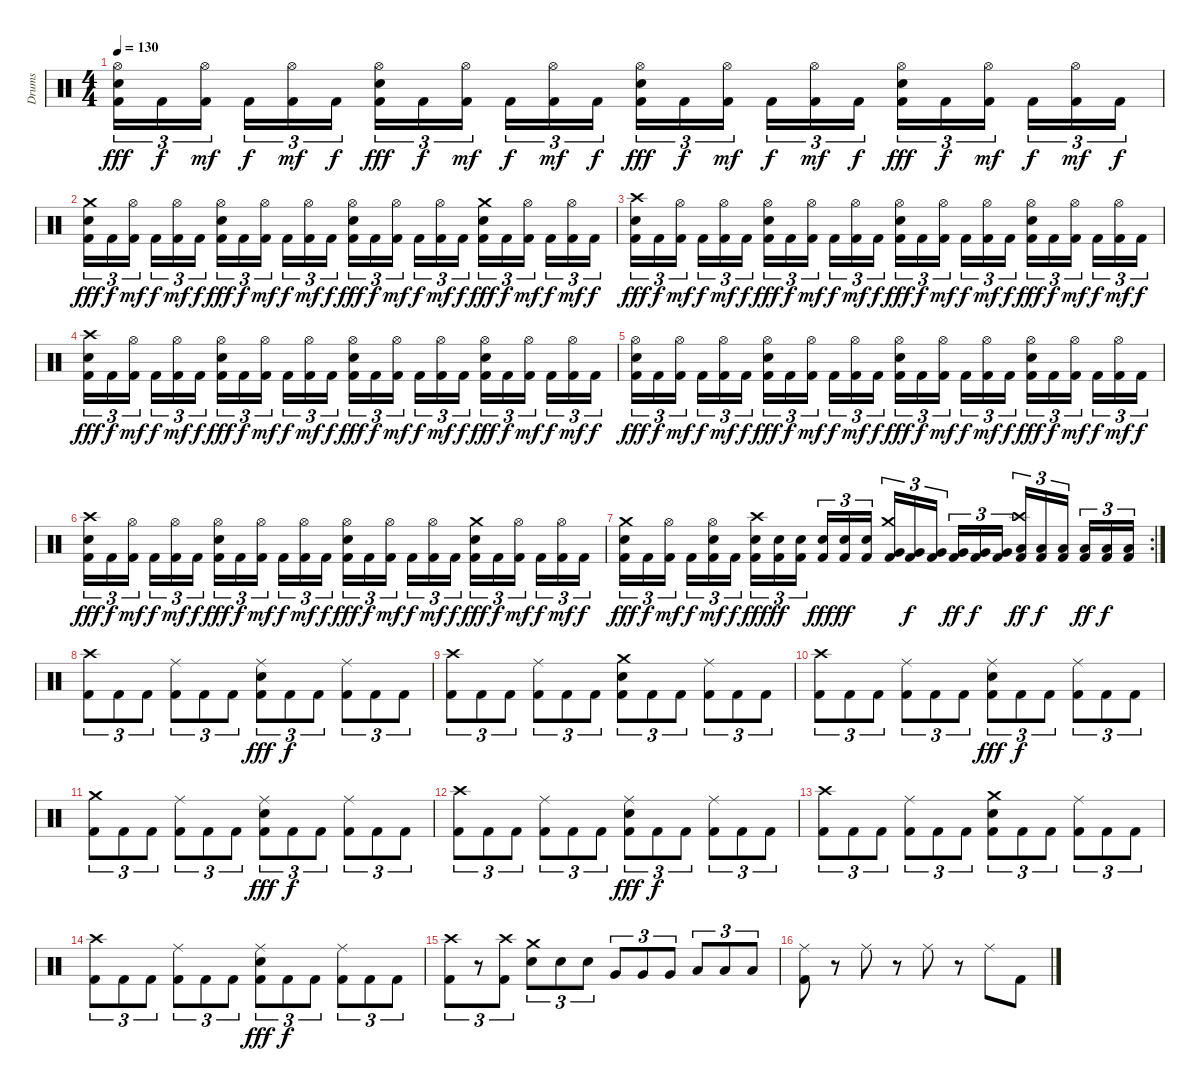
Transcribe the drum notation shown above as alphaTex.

\track ("Drums" "Drums") {instrument percussion}
\staff {score}
\articulation defaults
\ts (4 4)
\tempo 130
\clef neutral
\ks c
("Hi-Hat (open)" "Snare (hit) 2" "Kick (hit) 2").16{tu (3 2) dy fff} "Kick (hit) 2".16{tu (3 2) dy f} ("Hi-Hat (open)" "Kick (hit) 2").16{tu (3 2) dy mf} "Kick (hit) 2".16{tu (3 2) dy f} ("Hi-Hat (open)" "Kick (hit) 2").16{tu (3 2) dy mf} "Kick (hit) 2".16{tu (3 2) dy f} ("Hi-Hat (open)" "Snare (hit) 2" "Kick (hit) 2").16{tu (3 2) dy fff} "Kick (hit) 2".16{tu (3 2) dy f} ("Hi-Hat (open)" "Kick (hit) 2").16{tu (3 2) dy mf} "Kick (hit) 2".16{tu (3 2) dy f} ("Hi-Hat (open)" "Kick (hit) 2").16{tu (3 2) dy mf} "Kick (hit) 2".16{tu (3 2) dy f} ("Hi-Hat (open)" "Snare (hit) 2" "Kick (hit) 2").16{tu (3 2) dy fff} "Kick (hit) 2".16{tu (3 2) dy f} ("Hi-Hat (open)" "Kick (hit) 2").16{tu (3 2) dy mf} "Kick (hit) 2".16{tu (3 2) dy f} ("Hi-Hat (open)" "Kick (hit) 2").16{tu (3 2) dy mf} "Kick (hit) 2".16{tu (3 2) dy f} ("Hi-Hat (open)" "Snare (hit) 2" "Kick (hit) 2").16{tu (3 2) dy fff} "Kick (hit) 2".16{tu (3 2) dy f} ("Hi-Hat (open)" "Kick (hit) 2").16{tu (3 2) dy mf} "Kick (hit) 2".16{tu (3 2) dy f} ("Hi-Hat (open)" "Kick (hit) 2").16{tu (3 2) dy mf} "Kick (hit) 2".16{tu (3 2) dy f} |
("Crash medium (hit)" "Snare (hit) 2" "Kick (hit) 2").16{tu (3 2) dy fff} "Kick (hit) 2".16{tu (3 2) dy f} ("Hi-Hat (open)" "Kick (hit) 2").16{tu (3 2) dy mf} "Kick (hit) 2".16{tu (3 2) dy f} ("Hi-Hat (open)" "Kick (hit) 2").16{tu (3 2) dy mf} "Kick (hit) 2".16{tu (3 2) dy f} ("Hi-Hat (open)" "Snare (hit) 2" "Kick (hit) 2").16{tu (3 2) dy fff} "Kick (hit) 2".16{tu (3 2) dy f} ("Hi-Hat (open)" "Kick (hit) 2").16{tu (3 2) dy mf} "Kick (hit) 2".16{tu (3 2) dy f} ("Hi-Hat (open)" "Kick (hit) 2").16{tu (3 2) dy mf} "Kick (hit) 2".16{tu (3 2) dy f} ("Hi-Hat (open)" "Snare (hit) 2" "Kick (hit) 2").16{tu (3 2) dy fff} "Kick (hit) 2".16{tu (3 2) dy f} ("Hi-Hat (open)" "Kick (hit) 2").16{tu (3 2) dy mf} "Kick (hit) 2".16{tu (3 2) dy f} ("Hi-Hat (open)" "Kick (hit) 2").16{tu (3 2) dy mf} "Kick (hit) 2".16{tu (3 2) dy f} ("Crash medium (hit)" "Snare (hit) 2" "Kick (hit) 2").16{tu (3 2) dy fff} "Kick (hit) 2".16{tu (3 2) dy f} ("Hi-Hat (open)" "Kick (hit) 2").16{tu (3 2) dy mf} "Kick (hit) 2".16{tu (3 2) dy f} ("Hi-Hat (open)" "Kick (hit) 2").16{tu (3 2) dy mf} "Kick (hit) 2".16{tu (3 2) dy f} |
("Crash high (hit)" "Snare (hit) 2" "Kick (hit) 2").16{tu (3 2) dy fff} "Kick (hit) 2".16{tu (3 2) dy f} ("Hi-Hat (open)" "Kick (hit) 2").16{tu (3 2) dy mf} "Kick (hit) 2".16{tu (3 2) dy f} ("Hi-Hat (open)" "Kick (hit) 2").16{tu (3 2) dy mf} "Kick (hit) 2".16{tu (3 2) dy f} ("Hi-Hat (open)" "Snare (hit) 2" "Kick (hit) 2").16{tu (3 2) dy fff} "Kick (hit) 2".16{tu (3 2) dy f} ("Hi-Hat (open)" "Kick (hit) 2").16{tu (3 2) dy mf} "Kick (hit) 2".16{tu (3 2) dy f} ("Hi-Hat (open)" "Kick (hit) 2").16{tu (3 2) dy mf} "Kick (hit) 2".16{tu (3 2) dy f} ("Hi-Hat (open)" "Snare (hit) 2" "Kick (hit) 2").16{tu (3 2) dy fff} "Kick (hit) 2".16{tu (3 2) dy f} ("Hi-Hat (open)" "Kick (hit) 2").16{tu (3 2) dy mf} "Kick (hit) 2".16{tu (3 2) dy f} ("Hi-Hat (open)" "Kick (hit) 2").16{tu (3 2) dy mf} "Kick (hit) 2".16{tu (3 2) dy f} ("Hi-Hat (open)" "Snare (hit) 2" "Kick (hit) 2").16{tu (3 2) dy fff} "Kick (hit) 2".16{tu (3 2) dy f} ("Hi-Hat (open)" "Kick (hit) 2").16{tu (3 2) dy mf} "Kick (hit) 2".16{tu (3 2) dy f} ("Hi-Hat (open)" "Kick (hit) 2").16{tu (3 2) dy mf} "Kick (hit) 2".16{tu (3 2) dy f} |
("Crash high (hit)" "Snare (hit) 2" "Kick (hit) 2").16{tu (3 2) dy fff} "Kick (hit) 2".16{tu (3 2) dy f} ("Hi-Hat (open)" "Kick (hit) 2").16{tu (3 2) dy mf} "Kick (hit) 2".16{tu (3 2) dy f} ("Hi-Hat (open)" "Kick (hit) 2").16{tu (3 2) dy mf} "Kick (hit) 2".16{tu (3 2) dy f} ("Hi-Hat (open)" "Snare (hit) 2" "Kick (hit) 2").16{tu (3 2) dy fff} "Kick (hit) 2".16{tu (3 2) dy f} ("Hi-Hat (open)" "Kick (hit) 2").16{tu (3 2) dy mf} "Kick (hit) 2".16{tu (3 2) dy f} ("Hi-Hat (open)" "Kick (hit) 2").16{tu (3 2) dy mf} "Kick (hit) 2".16{tu (3 2) dy f} ("Hi-Hat (open)" "Snare (hit) 2" "Kick (hit) 2").16{tu (3 2) dy fff} "Kick (hit) 2".16{tu (3 2) dy f} ("Hi-Hat (open)" "Kick (hit) 2").16{tu (3 2) dy mf} "Kick (hit) 2".16{tu (3 2) dy f} ("Hi-Hat (open)" "Kick (hit) 2").16{tu (3 2) dy mf} "Kick (hit) 2".16{tu (3 2) dy f} ("Hi-Hat (open)" "Snare (hit) 2" "Kick (hit) 2").16{tu (3 2) dy fff} "Kick (hit) 2".16{tu (3 2) dy f} ("Hi-Hat (open)" "Kick (hit) 2").16{tu (3 2) dy mf} "Kick (hit) 2".16{tu (3 2) dy f} ("Hi-Hat (open)" "Kick (hit) 2").16{tu (3 2) dy mf} "Kick (hit) 2".16{tu (3 2) dy f} |
("Hi-Hat (open)" "Snare (hit) 2" "Kick (hit) 2").16{tu (3 2) dy fff} "Kick (hit) 2".16{tu (3 2) dy f} ("Hi-Hat (open)" "Kick (hit) 2").16{tu (3 2) dy mf} "Kick (hit) 2".16{tu (3 2) dy f} ("Hi-Hat (open)" "Kick (hit) 2").16{tu (3 2) dy mf} "Kick (hit) 2".16{tu (3 2) dy f} ("Hi-Hat (open)" "Snare (hit) 2" "Kick (hit) 2").16{tu (3 2) dy fff} "Kick (hit) 2".16{tu (3 2) dy f} ("Hi-Hat (open)" "Kick (hit) 2").16{tu (3 2) dy mf} "Kick (hit) 2".16{tu (3 2) dy f} ("Hi-Hat (open)" "Kick (hit) 2").16{tu (3 2) dy mf} "Kick (hit) 2".16{tu (3 2) dy f} ("Hi-Hat (open)" "Snare (hit) 2" "Kick (hit) 2").16{tu (3 2) dy fff} "Kick (hit) 2".16{tu (3 2) dy f} ("Hi-Hat (open)" "Kick (hit) 2").16{tu (3 2) dy mf} "Kick (hit) 2".16{tu (3 2) dy f} ("Hi-Hat (open)" "Kick (hit) 2").16{tu (3 2) dy mf} "Kick (hit) 2".16{tu (3 2) dy f} ("Hi-Hat (open)" "Snare (hit) 2" "Kick (hit) 2").16{tu (3 2) dy fff} "Kick (hit) 2".16{tu (3 2) dy f} ("Hi-Hat (open)" "Kick (hit) 2").16{tu (3 2) dy mf} "Kick (hit) 2".16{tu (3 2) dy f} ("Hi-Hat (open)" "Kick (hit) 2").16{tu (3 2) dy mf} "Kick (hit) 2".16{tu (3 2) dy f} |
("Crash high (hit)" "Snare (hit) 2" "Kick (hit) 2").16{tu (3 2) dy fff} "Kick (hit) 2".16{tu (3 2) dy f} ("Hi-Hat (open)" "Kick (hit) 2").16{tu (3 2) dy mf} "Kick (hit) 2".16{tu (3 2) dy f} ("Hi-Hat (open)" "Kick (hit) 2").16{tu (3 2) dy mf} "Kick (hit) 2".16{tu (3 2) dy f} ("Hi-Hat (open)" "Snare (hit) 2" "Kick (hit) 2").16{tu (3 2) dy fff} "Kick (hit) 2".16{tu (3 2) dy f} ("Hi-Hat (open)" "Kick (hit) 2").16{tu (3 2) dy mf} "Kick (hit) 2".16{tu (3 2) dy f} ("Hi-Hat (open)" "Kick (hit) 2").16{tu (3 2) dy mf} "Kick (hit) 2".16{tu (3 2) dy f} ("Hi-Hat (open)" "Snare (hit) 2" "Kick (hit) 2").16{tu (3 2) dy fff} "Kick (hit) 2".16{tu (3 2) dy f} ("Hi-Hat (open)" "Kick (hit) 2").16{tu (3 2) dy mf} "Kick (hit) 2".16{tu (3 2) dy f} ("Hi-Hat (open)" "Kick (hit) 2").16{tu (3 2) dy mf} "Kick (hit) 2".16{tu (3 2) dy f} ("Crash medium (hit)" "Snare (hit) 2" "Kick (hit) 2").16{tu (3 2) dy fff} "Kick (hit) 2".16{tu (3 2) dy f} ("Hi-Hat (open)" "Kick (hit) 2").16{tu (3 2) dy mf} "Kick (hit) 2".16{tu (3 2) dy f} ("Hi-Hat (open)" "Kick (hit) 2").16{tu (3 2) dy mf} "Kick (hit) 2".16{tu (3 2) dy f} |
\rc 2
("Crash medium (hit)" "Snare (hit) 2" "Kick (hit) 2").16{tu (3 2) dy fff} "Kick (hit) 2".16{tu (3 2) dy f} ("Hi-Hat (open)" "Kick (hit) 2").16{tu (3 2) dy mf} "Kick (hit) 2".16{tu (3 2) dy f} ("Hi-Hat (open)" "Snare (hit) 2" "Kick (hit) 2").16{tu (3 2) dy mf} "Kick (hit) 2".16{tu (3 2) dy f} ("Crash high (hit)" "Snare (hit) 2" "Kick (hit) 2").16{tu (3 2) dy fff} ("Snare (hit) 2" "Kick (hit) 2").16{tu (3 2) dy ff} ("Snare (hit) 2" "Kick (hit) 2").16{tu (3 2)} ("Snare (hit) 2" "Kick (hit) 2").16{tu (3 2) dy fff} ("Snare (hit) 2" "Kick (hit) 2").16{tu (3 2) dy ff} ("Snare (hit) 2" "Kick (hit) 2").16{tu (3 2)} ("Crash medium (hit)" "Very Low Tom (hit)" "Kick (hit) 2").16{tu (3 2)} ("Very Low Tom (hit)" "Kick (hit) 2").16{tu (3 2) dy f} ("Very Low Tom (hit)" "Kick (hit) 2").16{tu (3 2)} ("Very Low Tom (hit)" "Kick (hit) 2").16{tu (3 2) dy ff} ("Very Low Tom (hit)" "Kick (hit) 2").16{tu (3 2) dy f} ("Very Low Tom (hit)" "Kick (hit) 2").16{tu (3 2)} ("Crash high (hit)" "Low Floor Tom (hit)" "Kick (hit) 2").16{tu (3 2) dy ff} ("Low Floor Tom (hit)" "Kick (hit) 2").16{tu (3 2) dy f} ("Low Floor Tom (hit)" "Kick (hit) 2").16{tu (3 2)} ("Low Floor Tom (hit)" "Kick (hit) 2").16{tu (3 2) dy ff} ("Low Floor Tom (hit)" "Kick (hit) 2").16{tu (3 2) dy f} ("Low Floor Tom (hit)" "Kick (hit) 2").16{tu (3 2)} |
("Crash high (hit)" "Kick (hit) 2").8{tu (3 2)} "Kick (hit) 2".8{tu (3 2)} "Kick (hit) 2".8{tu (3 2)} ("Ride (middle)" "Kick (hit) 2").8{tu (3 2)} "Kick (hit) 2".8{tu (3 2)} "Kick (hit) 2".8{tu (3 2)} ("Ride (middle)" "Snare (hit) 2" "Kick (hit) 2").8{tu (3 2) dy fff} "Kick (hit) 2".8{tu (3 2) dy f} "Kick (hit) 2".8{tu (3 2)} ("Ride (middle)" "Kick (hit) 2").8{tu (3 2)} "Kick (hit) 2".8{tu (3 2)} "Kick (hit) 2".8{tu (3 2)} |
("Crash high (hit)" "Kick (hit) 2").8{tu (3 2)} "Kick (hit) 2".8{tu (3 2)} "Kick (hit) 2".8{tu (3 2)} ("Ride (middle)" "Kick (hit) 2").8{tu (3 2)} "Kick (hit) 2".8{tu (3 2)} "Kick (hit) 2".8{tu (3 2)} ("Crash medium (hit)" "Snare (hit) 2" "Kick (hit) 2").8{tu (3 2)} "Kick (hit) 2".8{tu (3 2)} "Kick (hit) 2".8{tu (3 2)} ("Ride (middle)" "Kick (hit) 2").8{tu (3 2)} "Kick (hit) 2".8{tu (3 2)} "Kick (hit) 2".8{tu (3 2)} |
("Crash high (hit)" "Kick (hit) 2").8{tu (3 2)} "Kick (hit) 2".8{tu (3 2)} "Kick (hit) 2".8{tu (3 2)} ("Ride (middle)" "Kick (hit) 2").8{tu (3 2)} "Kick (hit) 2".8{tu (3 2)} "Kick (hit) 2".8{tu (3 2)} ("Ride (middle)" "Snare (hit) 2" "Kick (hit) 2").8{tu (3 2) dy fff} "Kick (hit) 2".8{tu (3 2) dy f} "Kick (hit) 2".8{tu (3 2)} ("Ride (middle)" "Kick (hit) 2").8{tu (3 2)} "Kick (hit) 2".8{tu (3 2)} "Kick (hit) 2".8{tu (3 2)} |
("Crash medium (hit)" "Kick (hit) 2").8{tu (3 2)} "Kick (hit) 2".8{tu (3 2)} "Kick (hit) 2".8{tu (3 2)} ("Ride (middle)" "Kick (hit) 2").8{tu (3 2)} "Kick (hit) 2".8{tu (3 2)} "Kick (hit) 2".8{tu (3 2)} ("Ride (middle)" "Snare (hit) 2" "Kick (hit) 2").8{tu (3 2) dy fff} "Kick (hit) 2".8{tu (3 2) dy f} "Kick (hit) 2".8{tu (3 2)} ("Ride (middle)" "Kick (hit) 2").8{tu (3 2)} "Kick (hit) 2".8{tu (3 2)} "Kick (hit) 2".8{tu (3 2)} |
("Crash high (hit)" "Kick (hit) 2").8{tu (3 2)} "Kick (hit) 2".8{tu (3 2)} "Kick (hit) 2".8{tu (3 2)} ("Ride (middle)" "Kick (hit) 2").8{tu (3 2)} "Kick (hit) 2".8{tu (3 2)} "Kick (hit) 2".8{tu (3 2)} ("Ride (middle)" "Snare (hit) 2" "Kick (hit) 2").8{tu (3 2) dy fff} "Kick (hit) 2".8{tu (3 2) dy f} "Kick (hit) 2".8{tu (3 2)} ("Ride (middle)" "Kick (hit) 2").8{tu (3 2)} "Kick (hit) 2".8{tu (3 2)} "Kick (hit) 2".8{tu (3 2)} |
("Crash high (hit)" "Kick (hit) 2").8{tu (3 2)} "Kick (hit) 2".8{tu (3 2)} "Kick (hit) 2".8{tu (3 2)} ("Ride (middle)" "Kick (hit) 2").8{tu (3 2)} "Kick (hit) 2".8{tu (3 2)} "Kick (hit) 2".8{tu (3 2)} ("Crash medium (hit)" "Snare (hit) 2" "Kick (hit) 2").8{tu (3 2)} "Kick (hit) 2".8{tu (3 2)} "Kick (hit) 2".8{tu (3 2)} ("Ride (middle)" "Kick (hit) 2").8{tu (3 2)} "Kick (hit) 2".8{tu (3 2)} "Kick (hit) 2".8{tu (3 2)} |
("Crash high (hit)" "Kick (hit) 2").8{tu (3 2)} "Kick (hit) 2".8{tu (3 2)} "Kick (hit) 2".8{tu (3 2)} ("Ride (middle)" "Kick (hit) 2").8{tu (3 2)} "Kick (hit) 2".8{tu (3 2)} "Kick (hit) 2".8{tu (3 2)} ("Ride (middle)" "Snare (hit) 2" "Kick (hit) 2").8{tu (3 2) dy fff} "Kick (hit) 2".8{tu (3 2) dy f} "Kick (hit) 2".8{tu (3 2)} ("Ride (middle)" "Kick (hit) 2").8{tu (3 2)} "Kick (hit) 2".8{tu (3 2)} "Kick (hit) 2".8{tu (3 2)} |
("Crash high (hit)" "Kick (hit) 2").8{tu (3 2)} r.8{tu (3 2)} ("Crash high (hit)" "Kick (hit) 2").8{tu (3 2)} ("Crash medium (hit)" "Snare (hit) 2").8{tu (3 2)} "Snare (hit) 2".8{tu (3 2)} "Snare (hit) 2".8{tu (3 2)} "Very Low Tom (hit)".8{tu (3 2)} "Very Low Tom (hit)".8{tu (3 2)} "Very Low Tom (hit)".8{tu (3 2)} "Low Floor Tom (hit)".8{tu (3 2)} "Low Floor Tom (hit)".8{tu (3 2)} "Low Floor Tom (hit)".8{tu (3 2)} |
("Ride (middle)" "Kick (hit) 2").8 r.8 "Ride (middle)".8 r.8 "Ride (middle)".8 r.8 "Ride (middle)".8 "Kick (hit) 2".8
